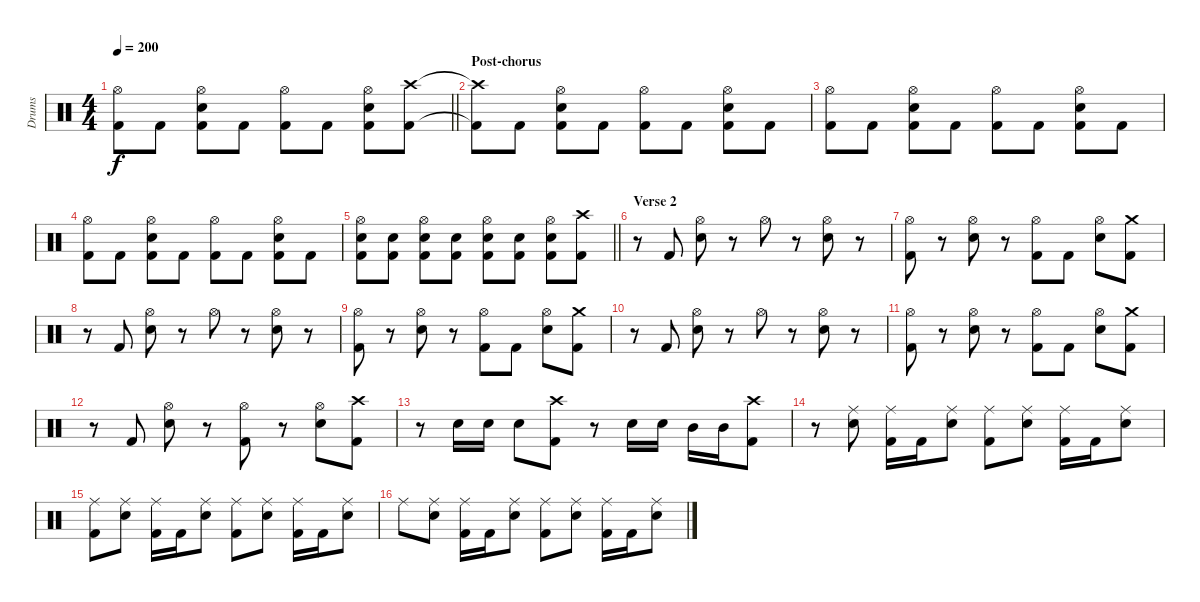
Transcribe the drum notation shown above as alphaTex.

\track ("Drums" "Drums") {instrument percussion}
\staff {score}
\articulation defaults
\ts (4 4)
\tempo 200
\clef neutral
\barLineRight lightlight
\ks c
("Hi-Hat (open)" "Kick (hit) 2").8{dy f} "Kick (hit) 2".8 ("Hi-Hat (open)" "Snare (hit) 2" "Kick (hit) 2").8 "Kick (hit) 2".8 ("Hi-Hat (open)" "Kick (hit) 2").8 "Kick (hit) 2".8 ("Hi-Hat (open)" "Snare (hit) 2" "Kick (hit) 2").8 ("Crash high (hit)" "Kick (hit) 2").8 |
\section ("" "Post-chorus")
("Crash high (hit)"{t} "Kick (hit) 2"{t}).8 "Kick (hit) 2".8 ("Hi-Hat (open)" "Snare (hit) 2" "Kick (hit) 2").8 "Kick (hit) 2".8 ("Hi-Hat (open)" "Kick (hit) 2").8 "Kick (hit) 2".8 ("Hi-Hat (open)" "Snare (hit) 2" "Kick (hit) 2").8 "Kick (hit) 2".8 |
("Hi-Hat (open)" "Kick (hit) 2").8 "Kick (hit) 2".8 ("Hi-Hat (open)" "Snare (hit) 2" "Kick (hit) 2").8 "Kick (hit) 2".8 ("Hi-Hat (open)" "Kick (hit) 2").8 "Kick (hit) 2".8 ("Hi-Hat (open)" "Snare (hit) 2" "Kick (hit) 2").8 "Kick (hit) 2".8 |
("Hi-Hat (open)" "Kick (hit) 2").8 "Kick (hit) 2".8 ("Hi-Hat (open)" "Snare (hit) 2" "Kick (hit) 2").8 "Kick (hit) 2".8 ("Hi-Hat (open)" "Kick (hit) 2").8 "Kick (hit) 2".8 ("Hi-Hat (open)" "Snare (hit) 2" "Kick (hit) 2").8 "Kick (hit) 2".8 |
\barLineRight lightlight
("Hi-Hat (open)" "Snare (hit) 2" "Kick (hit) 2").8 ("Snare (hit) 2" "Kick (hit) 2").8 ("Hi-Hat (open)" "Snare (hit) 2" "Kick (hit) 2").8 ("Snare (hit) 2" "Kick (hit) 2").8 ("Hi-Hat (open)" "Snare (hit) 2" "Kick (hit) 2").8 ("Snare (hit) 2" "Kick (hit) 2").8 ("Hi-Hat (open)" "Snare (hit) 2" "Kick (hit) 2").8 ("Crash high (hit)" "Kick (hit) 2").8 |
\section ("" "Verse 2")
r.8 "Kick (hit) 2".8 ("Hi-Hat (open)" "Snare (hit) 2").8 r.8 "Hi-Hat (open)".8 r.8 ("Hi-Hat (open)" "Snare (hit) 2").8 r.8 |
("Hi-Hat (open)" "Kick (hit) 2").8 r.8 ("Hi-Hat (open)" "Snare (hit) 2").8 r.8 ("Hi-Hat (open)" "Kick (hit) 2").8 "Kick (hit) 2".8 ("Hi-Hat (open)" "Snare (hit) 2").8 ("Crash medium (hit)" "Kick (hit) 2").8 |
r.8 "Kick (hit) 2".8 ("Hi-Hat (open)" "Snare (hit) 2").8 r.8 "Hi-Hat (open)".8 r.8 ("Hi-Hat (open)" "Snare (hit) 2").8 r.8 |
("Hi-Hat (open)" "Kick (hit) 2").8 r.8 ("Hi-Hat (open)" "Snare (hit) 2").8 r.8 ("Hi-Hat (open)" "Kick (hit) 2").8 "Kick (hit) 2".8 ("Hi-Hat (open)" "Snare (hit) 2").8 ("Crash medium (hit)" "Kick (hit) 2").8 |
r.8 "Kick (hit) 2".8 ("Hi-Hat (open)" "Snare (hit) 2").8 r.8 "Hi-Hat (open)".8 r.8 ("Hi-Hat (open)" "Snare (hit) 2").8 r.8 |
("Hi-Hat (open)" "Kick (hit) 2").8 r.8 ("Hi-Hat (open)" "Snare (hit) 2").8 r.8 ("Hi-Hat (open)" "Kick (hit) 2").8 "Kick (hit) 2".8 ("Hi-Hat (open)" "Snare (hit) 2").8 ("Crash medium (hit)" "Kick (hit) 2").8 |
r.8 "Kick (hit) 2".8 ("Hi-Hat (open)" "Snare (hit) 2").8 r.8 ("Hi-Hat (open)" "Kick (hit) 2").8 r.8 ("Hi-Hat (open)" "Snare (hit) 2").8 ("Crash high (hit)" "Kick (hit) 2").8 |
r.8 "Snare (hit) 2".16 "Snare (hit) 2".16 "Snare (hit) 2".8 ("Crash high (hit)" "Kick (hit) 2").8 r.8 "Snare (hit) 2".16 "Snare (hit) 2".16 "Mid Tom (hit)".16 "Mid Tom (hit)".16 ("Crash high (hit)" "Kick (hit) 2").8 |
r.8 ("Ride (middle)" "Snare (hit) 2").8 ("Ride (middle)" "Kick (hit) 2").16 "Kick (hit) 2".16 ("Ride (middle)" "Snare (hit) 2").8 ("Ride (middle)" "Kick (hit) 2").8 ("Ride (middle)" "Snare (hit) 2").8 ("Ride (middle)" "Kick (hit) 2").16 "Kick (hit) 2".16 ("Ride (middle)" "Snare (hit) 2").8 |
("Ride (middle)" "Kick (hit) 2").8 ("Ride (middle)" "Snare (hit) 2").8 ("Ride (middle)" "Kick (hit) 2").16 "Kick (hit) 2".16 ("Ride (middle)" "Snare (hit) 2").8 ("Ride (middle)" "Kick (hit) 2").8 ("Ride (middle)" "Snare (hit) 2").8 ("Ride (middle)" "Kick (hit) 2").16 "Kick (hit) 2".16 ("Ride (middle)" "Snare (hit) 2").8 |
"Ride (middle)".8 ("Ride (middle)" "Snare (hit) 2").8 ("Ride (middle)" "Kick (hit) 2").16 "Kick (hit) 2".16 ("Ride (middle)" "Snare (hit) 2").8 ("Ride (middle)" "Kick (hit) 2").8 ("Ride (middle)" "Snare (hit) 2").8 ("Ride (middle)" "Kick (hit) 2").16 "Kick (hit) 2".16 ("Ride (middle)" "Snare (hit) 2").8
